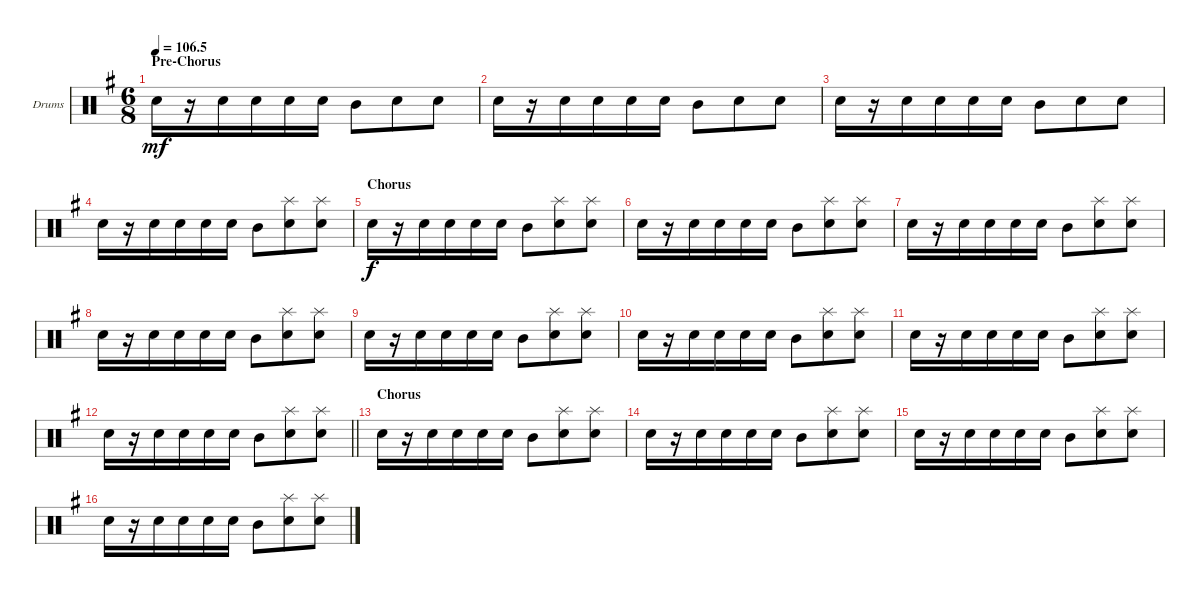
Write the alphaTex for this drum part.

\defaultSystemsLayout 4
\bracketExtendMode groupsimilarinstruments
\firstSystemTrackNameOrientation horizontal
\otherSystemsTrackNameOrientation horizontal
\track ("Drumkit" "Drums") {instrument percussion}
\staff {score}
\articulation defaults
\ts (6 8)
\section ("" "Pre-Chorus")
\tempo
106.5
\accidentals auto
\clef neutral
\ottava regular
\simile none
\scale
0.333333
\ks g "Snare (hit) 2".16{dy mf}
r.16 "Snare (hit) 2".16 "Snare (hit) 2".16 "Snare (hit) 2".16 "Snare (hit) 2".16 "Mid Tom (hit)".8 "Snare (hit) 2".8 "Snare (hit) 2".8 |
\scale
0.333333 "Snare (hit) 2".16 r.16 "Snare (hit) 2".16 "Snare (hit) 2".16 "Snare (hit) 2".16 "Snare (hit) 2".16 "Mid Tom (hit)".8 "Snare (hit) 2".8 "Snare (hit) 2".8 |
\scale
0.333333 "Snare (hit) 2".16 r.16 "Snare (hit) 2".16 "Snare (hit) 2".16 "Snare (hit) 2".16 "Snare (hit) 2".16 "Mid Tom (hit)".8 "Snare (hit) 2".8 "Snare (hit) 2".8 |
\scale
0.333333 "Snare (hit) 2".16 r.16 "Snare (hit) 2".16 "Snare (hit) 2".16 "Snare (hit) 2".16 "Snare (hit) 2".16 "Mid Tom (hit)".8 ("Snare (hit) 2" "Splash (hit)").8 ("Snare (hit) 2" "Splash (hit)").8 |
\section ("" "Chorus")
\scale
0.333333 "Snare (hit) 2".16{dy f} r.16 "Snare (hit) 2".16 "Snare (hit) 2".16 "Snare (hit) 2".16 "Snare (hit) 2".16 "Mid Tom (hit)".8 ("Snare (hit) 2" "Splash (hit)").8 ("Snare (hit) 2" "Splash (hit)").8 |
\scale
0.333333 "Snare (hit) 2".16 r.16 "Snare (hit) 2".16 "Snare (hit) 2".16 "Snare (hit) 2".16 "Snare (hit) 2".16 "Mid Tom (hit)".8 ("Snare (hit) 2" "Splash (hit)").8 ("Snare (hit) 2" "Splash (hit)").8 |
\scale
0.333333 "Snare (hit) 2".16 r.16 "Snare (hit) 2".16 "Snare (hit) 2".16 "Snare (hit) 2".16 "Snare (hit) 2".16 "Mid Tom (hit)".8 ("Snare (hit) 2" "Splash (hit)").8 ("Snare (hit) 2" "Splash (hit)").8 |
\scale
0.333333 "Snare (hit) 2".16 r.16 "Snare (hit) 2".16 "Snare (hit) 2".16 "Snare (hit) 2".16 "Snare (hit) 2".16 "Mid Tom (hit)".8 ("Snare (hit) 2" "Splash (hit)").8 ("Snare (hit) 2" "Splash (hit)").8 |
\scale
0.333333 "Snare (hit) 2".16 r.16 "Snare (hit) 2".16 "Snare (hit) 2".16 "Snare (hit) 2".16 "Snare (hit) 2".16 "Mid Tom (hit)".8 ("Snare (hit) 2" "Splash (hit)").8 ("Snare (hit) 2" "Splash (hit)").8 |
\scale
0.333333 "Snare (hit) 2".16 r.16 "Snare (hit) 2".16 "Snare (hit) 2".16 "Snare (hit) 2".16 "Snare (hit) 2".16 "Mid Tom (hit)".8 ("Snare (hit) 2" "Splash (hit)").8 ("Snare (hit) 2" "Splash (hit)").8 |
\scale
0.333333 "Snare (hit) 2".16 r.16 "Snare (hit) 2".16 "Snare (hit) 2".16 "Snare (hit) 2".16 "Snare (hit) 2".16 "Mid Tom (hit)".8 ("Snare (hit) 2" "Splash (hit)").8 ("Snare (hit) 2" "Splash (hit)").8 |
\scale
0.333333
\barLineRight lightlight "Snare (hit) 2".16
r.16 "Snare (hit) 2".16 "Snare (hit) 2".16 "Snare (hit) 2".16 "Snare (hit) 2".16 "Mid Tom (hit)".8 ("Snare (hit) 2" "Splash (hit)").8 ("Snare (hit) 2" "Splash (hit)").8 |
\section ("" "Chorus")
\scale
0.333333 "Snare (hit) 2".16 r.16 "Snare (hit) 2".16 "Snare (hit) 2".16 "Snare (hit) 2".16 "Snare (hit) 2".16 "Mid Tom (hit)".8 ("Snare (hit) 2" "Splash (hit)").8 ("Snare (hit) 2" "Splash (hit)").8 |
\scale
0.333333 "Snare (hit) 2".16 r.16 "Snare (hit) 2".16 "Snare (hit) 2".16 "Snare (hit) 2".16 "Snare (hit) 2".16 "Mid Tom (hit)".8 ("Snare (hit) 2" "Splash (hit)").8 ("Snare (hit) 2" "Splash (hit)").8 |
\scale
0.333333 "Snare (hit) 2".16 r.16 "Snare (hit) 2".16 "Snare (hit) 2".16 "Snare (hit) 2".16 "Snare (hit) 2".16 "Mid Tom (hit)".8 ("Snare (hit) 2" "Splash (hit)").8 ("Snare (hit) 2" "Splash (hit)").8 |
\scale
0.333333 "Snare (hit) 2".16 r.16 "Snare (hit) 2".16 "Snare (hit) 2".16 "Snare (hit) 2".16 "Snare (hit) 2".16 "Mid Tom (hit)".8 ("Snare (hit) 2" "Splash (hit)").8 ("Snare (hit) 2" "Splash (hit)").8
